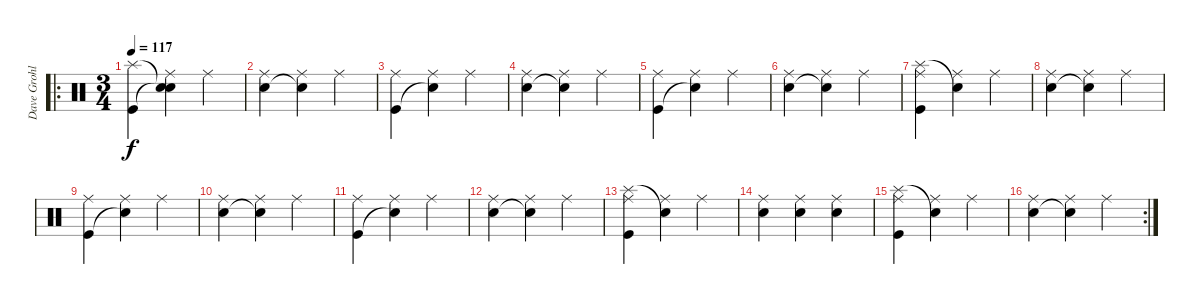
\track ("Dave Grohl-Drums" "Dave Grohl") {instrument percussion}
\staff {score}
\articulation defaults
\ro
\ts (3 4)
\tempo 117
\clef neutral
\ks c
("Splash (hit)" "Kick (hit)").4{dy f} ("Snare (hit)"{t} "Snare (hit)"{t} "Ride (middle)").4 "Ride (middle)".4 |
("Electric Snare (hit)" "Ride (middle)").4 ("Snare (hit)"{t} "Ride (middle)").4 "Ride (middle)".4 |
("Kick (hit)" "Ride (middle)").4 ("Snare (hit)"{t} "Ride (middle)").4 "Ride (middle)".4 |
("Electric Snare (hit)" "Ride (middle)").4 ("Snare (hit)"{t} "Ride (middle)").4 "Ride (middle)".4 |
("Kick (hit)" "Ride (middle)").4 ("Snare (hit)"{t} "Ride (middle)").4 "Ride (middle)".4 |
("Electric Snare (hit)" "Ride (middle)").4 ("Snare (hit)"{t} "Ride (middle)").4 "Ride (middle)".4 |
("Splash (hit)" "Kick (hit)" "Ride (middle)").4 ("Snare (hit)"{t} "Ride (middle)").4 "Ride (middle)".4 |
("Electric Snare (hit)" "Ride (middle)").4 ("Snare (hit)"{t} "Ride (middle)").4 "Ride (middle)".4 |
("Kick (hit)" "Ride (middle)").4 ("Snare (hit)"{t} "Ride (middle)").4 "Ride (middle)".4 |
("Electric Snare (hit)" "Ride (middle)").4 ("Snare (hit)"{t} "Ride (middle)").4 "Ride (middle)".4 |
("Kick (hit)" "Ride (middle)").4 ("Snare (hit)"{t} "Ride (middle)").4 "Ride (middle)".4 |
("Electric Snare (hit)" "Ride (middle)").4 ("Snare (hit)"{t} "Ride (middle)").4 "Ride (middle)".4 |
("Splash (hit)" "Kick (hit)" "Ride (middle)").4 ("Snare (hit)"{t} "Ride (middle)").4 "Ride (middle)".4 |
("Electric Snare (hit)" "Ride (middle)").4 ("Electric Snare (hit)" "Ride (middle)").4 ("Electric Snare (hit)" "Ride (middle)").4 |
("Splash (hit)" "Kick (hit)" "Ride (middle)").4 ("Snare (hit)"{t} "Ride (middle)").4 "Ride (middle)".4 |
\rc 2
("Electric Snare (hit)" "Ride (middle)").4 ("Snare (hit)"{t} "Ride (middle)").4 "Ride (middle)".4
